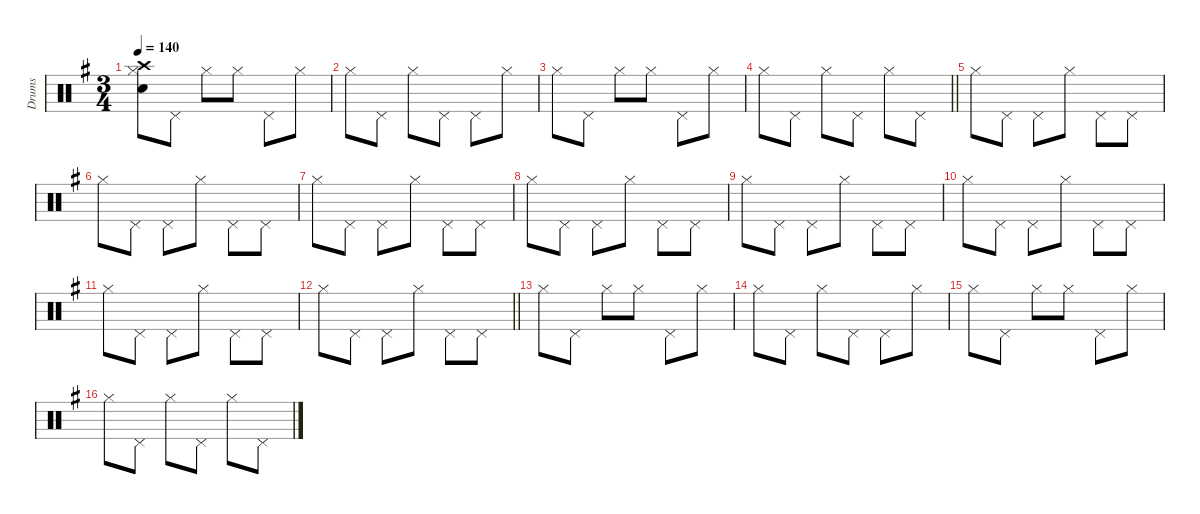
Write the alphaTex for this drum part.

\defaultSystemsLayout 8
\hideDynamics
\bracketExtendMode groupsimilarinstruments
\firstSystemTrackNameMode fullname
\otherSystemsTrackNameOrientation horizontal
\track ("Drums" "drm.") {defaultSystemsLayout 4 instrument percussion}
\staff {score}
\articulation defaults
\ts (3 4)
\tempo 140
\clef neutral
\ks g
("Hi-Hat (closed)"{acc forcenatural} "Snare (hit) 2"{acc forcenatural} "Crash high (hit)"{acc forcenatural}).8{dy f beam Down} "Pedal Hi-Hat (hit)"{acc forcenatural}.8{beam Down} "Hi-Hat (closed)"{acc forcenatural}.8{beam Down} "Hi-Hat (closed)"{acc forcenatural}.8{beam Down} "Pedal Hi-Hat (hit)"{acc forcenatural}.8{beam Down} "Hi-Hat (closed)"{acc forcenatural}.8{beam Down} |
"Hi-Hat (closed)"{acc forcenatural}.8{beam Down} "Pedal Hi-Hat (hit)"{acc forcenatural}.8{beam Down} "Hi-Hat (closed)"{acc forcenatural}.8{beam Down} "Pedal Hi-Hat (hit)"{acc forcenatural}.8{beam Down} "Pedal Hi-Hat (hit)"{acc forcenatural}.8{beam Down} "Hi-Hat (closed)"{acc forcenatural}.8{beam Down} |
"Hi-Hat (closed)"{acc forcenatural}.8{beam Down} "Pedal Hi-Hat (hit)"{acc forcenatural}.8{beam Down} "Hi-Hat (closed)"{acc forcenatural}.8{beam Down} "Hi-Hat (closed)"{acc forcenatural}.8{beam Down} "Pedal Hi-Hat (hit)"{acc forcenatural}.8{beam Down} "Hi-Hat (closed)"{acc forcenatural}.8{beam Down} |
\barLineRight lightlight "Hi-Hat (closed)"{acc forcenatural}.8{beam Down} "Pedal Hi-Hat (hit)"{acc forcenatural}.8{beam Down} "Hi-Hat (closed)"{acc forcenatural}.8{beam Down} "Pedal Hi-Hat (hit)"{acc forcenatural}.8{beam Down} "Hi-Hat (closed)"{acc forcenatural}.8{beam Down} "Pedal Hi-Hat (hit)"{acc forcenatural}.8{beam Down}
|
"Hi-Hat (closed)"{acc forcenatural}.8{beam Down} "Pedal Hi-Hat (hit)"{acc forcenatural}.8{beam Down} "Pedal Hi-Hat (hit)"{acc forcenatural}.8{beam Down} "Hi-Hat (closed)"{acc forcenatural}.8{beam Down} "Pedal Hi-Hat (hit)"{acc forcenatural}.8{beam Down} "Pedal Hi-Hat (hit)"{acc forcenatural}.8{beam Down} |
"Hi-Hat (closed)"{acc forcenatural}.8{beam Down} "Pedal Hi-Hat (hit)"{acc forcenatural}.8{beam Down} "Pedal Hi-Hat (hit)"{acc forcenatural}.8{beam Down} "Hi-Hat (closed)"{acc forcenatural}.8{beam Down} "Pedal Hi-Hat (hit)"{acc forcenatural}.8{beam Down} "Pedal Hi-Hat (hit)"{acc forcenatural}.8{beam Down} |
"Hi-Hat (closed)"{acc forcenatural}.8{beam Down} "Pedal Hi-Hat (hit)"{acc forcenatural}.8{beam Down} "Pedal Hi-Hat (hit)"{acc forcenatural}.8{beam Down} "Hi-Hat (closed)"{acc forcenatural}.8{beam Down} "Pedal Hi-Hat (hit)"{acc forcenatural}.8{beam Down} "Pedal Hi-Hat (hit)"{acc forcenatural}.8{beam Down} |
"Hi-Hat (closed)"{acc forcenatural}.8{beam Down} "Pedal Hi-Hat (hit)"{acc forcenatural}.8{beam Down} "Pedal Hi-Hat (hit)"{acc forcenatural}.8{beam Down} "Hi-Hat (closed)"{acc forcenatural}.8{beam Down} "Pedal Hi-Hat (hit)"{acc forcenatural}.8{beam Down} "Pedal Hi-Hat (hit)"{acc forcenatural}.8{beam Down} |
"Hi-Hat (closed)"{acc forcenatural}.8{beam Down} "Pedal Hi-Hat (hit)"{acc forcenatural}.8{beam Down} "Pedal Hi-Hat (hit)"{acc forcenatural}.8{beam Down} "Hi-Hat (closed)"{acc forcenatural}.8{beam Down} "Pedal Hi-Hat (hit)"{acc forcenatural}.8{beam Down} "Pedal Hi-Hat (hit)"{acc forcenatural}.8{beam Down} |
"Hi-Hat (closed)"{acc forcenatural}.8{beam Down} "Pedal Hi-Hat (hit)"{acc forcenatural}.8{beam Down} "Pedal Hi-Hat (hit)"{acc forcenatural}.8{beam Down} "Hi-Hat (closed)"{acc forcenatural}.8{beam Down} "Pedal Hi-Hat (hit)"{acc forcenatural}.8{beam Down} "Pedal Hi-Hat (hit)"{acc forcenatural}.8{beam Down} |
"Hi-Hat (closed)"{acc forcenatural}.8{beam Down} "Pedal Hi-Hat (hit)"{acc forcenatural}.8{beam Down} "Pedal Hi-Hat (hit)"{acc forcenatural}.8{beam Down} "Hi-Hat (closed)"{acc forcenatural}.8{beam Down} "Pedal Hi-Hat (hit)"{acc forcenatural}.8{beam Down} "Pedal Hi-Hat (hit)"{acc forcenatural}.8{beam Down} |
\barLineRight lightlight "Hi-Hat (closed)"{acc forcenatural}.8{beam Down} "Pedal Hi-Hat (hit)"{acc forcenatural}.8{beam Down} "Pedal Hi-Hat (hit)"{acc forcenatural}.8{beam Down} "Hi-Hat (closed)"{acc forcenatural}.8{beam Down} "Pedal Hi-Hat (hit)"{acc forcenatural}.8{beam Down} "Pedal Hi-Hat (hit)"{acc forcenatural}.8{beam Down}
|
"Hi-Hat (closed)"{acc forcenatural}.8{beam Down} "Pedal Hi-Hat (hit)"{acc forcenatural}.8{beam Down} "Hi-Hat (closed)"{acc forcenatural}.8{beam Down} "Hi-Hat (closed)"{acc forcenatural}.8{beam Down} "Pedal Hi-Hat (hit)"{acc forcenatural}.8{beam Down} "Hi-Hat (closed)"{acc forcenatural}.8{beam Down} |
"Hi-Hat (closed)"{acc forcenatural}.8{beam Down} "Pedal Hi-Hat (hit)"{acc forcenatural}.8{beam Down} "Hi-Hat (closed)"{acc forcenatural}.8{beam Down} "Pedal Hi-Hat (hit)"{acc forcenatural}.8{beam Down} "Pedal Hi-Hat (hit)"{acc forcenatural}.8{beam Down} "Hi-Hat (closed)"{acc forcenatural}.8{beam Down} |
"Hi-Hat (closed)"{acc forcenatural}.8{beam Down} "Pedal Hi-Hat (hit)"{acc forcenatural}.8{beam Down} "Hi-Hat (closed)"{acc forcenatural}.8{beam Down} "Hi-Hat (closed)"{acc forcenatural}.8{beam Down} "Pedal Hi-Hat (hit)"{acc forcenatural}.8{beam Down} "Hi-Hat (closed)"{acc forcenatural}.8{beam Down} |
"Hi-Hat (closed)"{acc forcenatural}.8{beam Down} "Pedal Hi-Hat (hit)"{acc forcenatural}.8{beam Down} "Hi-Hat (closed)"{acc forcenatural}.8{beam Down} "Pedal Hi-Hat (hit)"{acc forcenatural}.8{beam Down} "Hi-Hat (closed)"{acc forcenatural}.8{beam Down} "Pedal Hi-Hat (hit)"{acc forcenatural}.8{beam Down}
